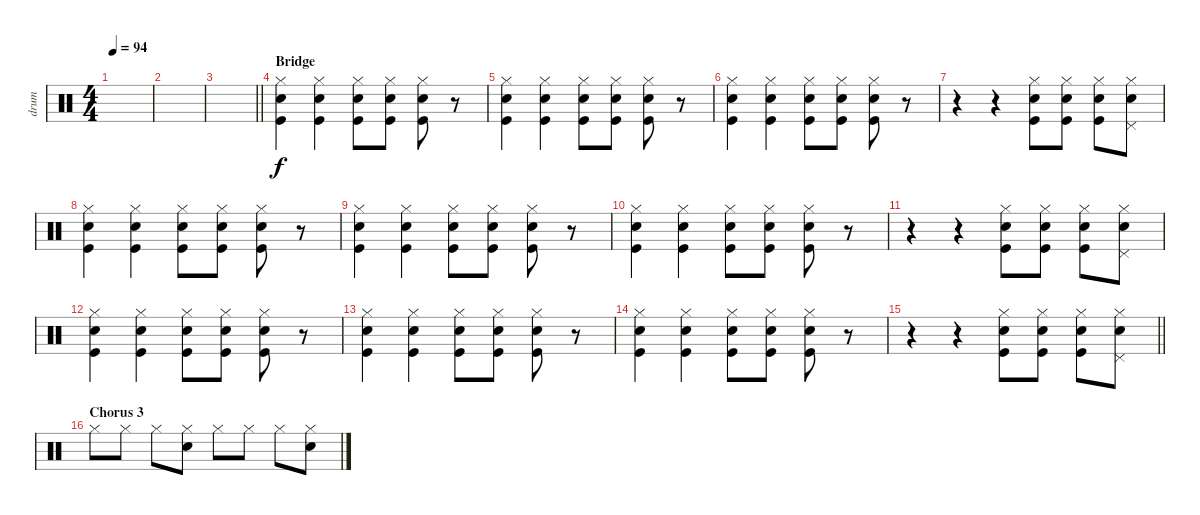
\track ("drum" "drum") {instrument percussion}
\staff {score}
\articulation defaults
\ts (4 4)
\tempo 94
\clef neutral
\ks c
|
|
\barLineRight lightlight
|
\section ("" "Bridge")
("Hi-Hat (closed)" "Snare (hit) 2" "Kick (hit)").4 ("Hi-Hat (closed)" "Kick (hit)" "Snare (hit) 2").4 ("Hi-Hat (closed)" "Kick (hit)" "Snare (hit) 2").8 ("Hi-Hat (closed)" "Kick (hit)" "Snare (hit) 2").8 ("Hi-Hat (closed)" "Kick (hit)" "Snare (hit) 2").8 r.8 |
("Hi-Hat (closed)" "Snare (hit) 2" "Kick (hit)").4 ("Hi-Hat (closed)" "Kick (hit)" "Snare (hit) 2").4 ("Hi-Hat (closed)" "Kick (hit)" "Snare (hit) 2").8 ("Hi-Hat (closed)" "Kick (hit)" "Snare (hit) 2").8 ("Hi-Hat (closed)" "Kick (hit)" "Snare (hit) 2").8 r.8 |
("Hi-Hat (closed)" "Snare (hit) 2" "Kick (hit)").4 ("Hi-Hat (closed)" "Kick (hit)" "Snare (hit) 2").4 ("Hi-Hat (closed)" "Kick (hit)" "Snare (hit) 2").8 ("Hi-Hat (closed)" "Kick (hit)" "Snare (hit) 2").8 ("Hi-Hat (closed)" "Kick (hit)" "Snare (hit) 2").8 r.8 |
r.4 r.4 ("Kick (hit)" "Snare (hit) 2" "Hi-Hat (closed)").8 ("Snare (hit) 2" "Kick (hit)" "Hi-Hat (closed)").8 ("Snare (hit) 2" "Kick (hit)" "Hi-Hat (closed)").8 ("Pedal Hi-Hat (hit)" "Hi-Hat (closed)" "Snare (hit) 2").8 |
("Hi-Hat (closed)" "Snare (hit) 2" "Kick (hit)").4 ("Hi-Hat (closed)" "Kick (hit)" "Snare (hit) 2").4 ("Hi-Hat (closed)" "Kick (hit)" "Snare (hit) 2").8 ("Hi-Hat (closed)" "Kick (hit)" "Snare (hit) 2").8 ("Hi-Hat (closed)" "Kick (hit)" "Snare (hit) 2").8 r.8 |
("Hi-Hat (closed)" "Snare (hit) 2" "Kick (hit)").4 ("Hi-Hat (closed)" "Kick (hit)" "Snare (hit) 2").4 ("Hi-Hat (closed)" "Kick (hit)" "Snare (hit) 2").8 ("Hi-Hat (closed)" "Kick (hit)" "Snare (hit) 2").8 ("Hi-Hat (closed)" "Kick (hit)" "Snare (hit) 2").8 r.8 |
("Hi-Hat (closed)" "Snare (hit) 2" "Kick (hit)").4 ("Hi-Hat (closed)" "Kick (hit)" "Snare (hit) 2").4 ("Hi-Hat (closed)" "Kick (hit)" "Snare (hit) 2").8 ("Hi-Hat (closed)" "Kick (hit)" "Snare (hit) 2").8 ("Hi-Hat (closed)" "Kick (hit)" "Snare (hit) 2").8 r.8 |
r.4 r.4 ("Kick (hit)" "Snare (hit) 2" "Hi-Hat (closed)").8 ("Snare (hit) 2" "Kick (hit)" "Hi-Hat (closed)").8 ("Snare (hit) 2" "Kick (hit)" "Hi-Hat (closed)").8 ("Pedal Hi-Hat (hit)" "Hi-Hat (closed)" "Snare (hit) 2").8 |
("Hi-Hat (closed)" "Snare (hit) 2" "Kick (hit)").4 ("Hi-Hat (closed)" "Kick (hit)" "Snare (hit) 2").4 ("Hi-Hat (closed)" "Kick (hit)" "Snare (hit) 2").8 ("Hi-Hat (closed)" "Kick (hit)" "Snare (hit) 2").8 ("Hi-Hat (closed)" "Kick (hit)" "Snare (hit) 2").8 r.8 |
("Hi-Hat (closed)" "Snare (hit) 2" "Kick (hit)").4 ("Hi-Hat (closed)" "Kick (hit)" "Snare (hit) 2").4 ("Hi-Hat (closed)" "Kick (hit)" "Snare (hit) 2").8 ("Hi-Hat (closed)" "Kick (hit)" "Snare (hit) 2").8 ("Hi-Hat (closed)" "Kick (hit)" "Snare (hit) 2").8 r.8 |
("Hi-Hat (closed)" "Snare (hit) 2" "Kick (hit)").4 ("Hi-Hat (closed)" "Kick (hit)" "Snare (hit) 2").4 ("Hi-Hat (closed)" "Kick (hit)" "Snare (hit) 2").8 ("Hi-Hat (closed)" "Kick (hit)" "Snare (hit) 2").8 ("Hi-Hat (closed)" "Kick (hit)" "Snare (hit) 2").8 r.8 |
\barLineRight lightlight
r.4 r.4 ("Kick (hit)" "Snare (hit) 2" "Hi-Hat (closed)").8 ("Snare (hit) 2" "Kick (hit)" "Hi-Hat (closed)").8 ("Snare (hit) 2" "Kick (hit)" "Hi-Hat (closed)").8 ("Pedal Hi-Hat (hit)" "Hi-Hat (closed)" "Snare (hit) 2").8 |
\section ("" "Chorus 3")
"Hi-Hat (closed)".8 "Hi-Hat (closed)".8 "Hi-Hat (closed)".8 ("Hi-Hat (closed)" "Snare (hit) 2").8 "Hi-Hat (closed)".8 "Hi-Hat (closed)".8 "Hi-Hat (closed)".8 ("Hi-Hat (closed)" "Snare (hit) 2").8
